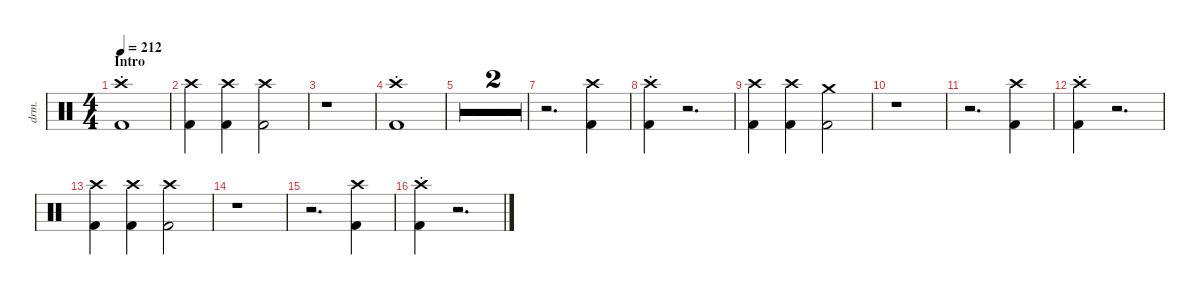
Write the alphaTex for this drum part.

\defaultSystemsLayout 4
\hideDynamics
\bracketExtendMode nobrackets
\track ("Drums" "drm.") {defaultSystemsLayout 4 multiBarRest instrument percussion}
\staff
\articulation defaults
\ts (4 4)
\section ("" "Intro")
\tempo 212
\clef neutral
\ks c
("Kick (hit) 2" "Crash high (hit)"{st}).1{dy f} |
("Crash high (hit)" "Kick (hit) 2").4 ("Crash high (hit)" "Kick (hit) 2").4 ("Crash high (hit)" "Kick (hit) 2").2{dy ff} |
r.1 |
("Kick (hit) 2" "Crash high (hit)"{st}).1{dy f} |
r.1 |
r.1 |
r.2{d} ("Crash high (hit)" "Kick (hit) 2").4 |
("Crash high (hit)"{st} "Kick (hit) 2").4 r.2{d} |
("Crash high (hit)" "Kick (hit) 2").4 ("Crash high (hit)" "Kick (hit) 2").4 ("Crash medium (hit)" "Kick (hit) 2").2 |
r.1 |
r.2{d} ("Crash high (hit)" "Kick (hit) 2").4 |
("Crash high (hit)"{st} "Kick (hit) 2").4 r.2{d} |
("Crash high (hit)" "Kick (hit) 2").4 ("Crash high (hit)" "Kick (hit) 2").4 ("Crash high (hit)" "Kick (hit) 2").2 |
r.1 |
r.2{d} ("Crash high (hit)" "Kick (hit) 2").4 |
("Crash high (hit)"{st} "Kick (hit) 2").4 r.2{d}
